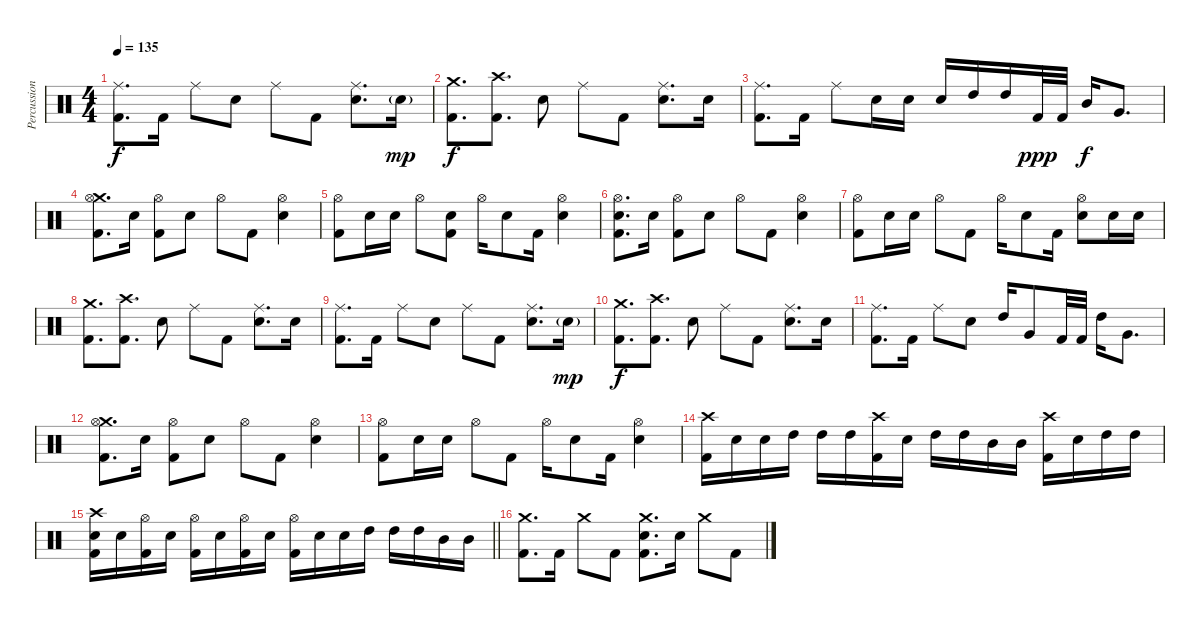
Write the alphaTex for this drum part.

\track ("Percussions" "Percussion") {instrument percussion}
\staff {score}
\articulation defaults
\ts (4 4)
\tempo 135
\clef neutral
\ks c
("Ride (middle)" "Kick (hit) 2").8{d dy f} "Kick (hit) 2".16 "Ride (middle)".8 "Electric Snare (hit)".8 "Ride (middle)".8 "Kick (hit) 2".8 ("Ride (middle)" "Electric Snare (hit)").8{d} "Electric Snare (hit)"{g}.16{dy mp} |
("Crash medium (hit)" "Kick (hit) 2").8{d dy f} ("Crash high (hit)" "Kick (hit) 2").8{d} "Electric Snare (hit)".8 "Ride (middle)".8 "Kick (hit) 2".8 ("Ride (middle)" "Electric Snare (hit)").8{d} "Electric Snare (hit)".16 |
("Ride (middle)" "Kick (hit) 2").8{d} "Kick (hit) 2".16 "Ride (middle)".8 "Electric Snare (hit)".16 "Electric Snare (hit)".16 "Electric Snare (hit)".16 "High Tom (hit)".16 "High Tom (hit)".16 "Kick (hit) 2".32{dy ppp} "Kick (hit) 2".32 "Mid Tom (hit)".16{dy f} "Very Low Tom (hit)".8{d} |
("Crash medium (hit)" "Hi-Hat (open)" "Kick (hit) 2").8{d} "Electric Snare (hit)".16 ("Hi-Hat (open)" "Kick (hit) 2").8 "Electric Snare (hit)".8 "Hi-Hat (open)".8 "Kick (hit) 2".8 ("Hi-Hat (open)" "Electric Snare (hit)").4 |
("Hi-Hat (open)" "Kick (hit) 2").8 "Electric Snare (hit)".16 "Electric Snare (hit)".16 "Hi-Hat (open)".8 ("Electric Snare (hit)" "Kick (hit) 2").8 "Hi-Hat (open)".16 "Electric Snare (hit)".8 "Kick (hit) 2".16 ("Hi-Hat (open)" "Electric Snare (hit)").4 |
("Hi-Hat (open)" "Electric Snare (hit)" "Kick (hit) 2").8{d} "Electric Snare (hit)".16 ("Hi-Hat (open)" "Kick (hit) 2").8 "Electric Snare (hit)".8 "Hi-Hat (open)".8 "Kick (hit) 2".8 ("Hi-Hat (open)" "Electric Snare (hit)").4 |
("Hi-Hat (open)" "Kick (hit) 2").8 "Electric Snare (hit)".16 "Electric Snare (hit)".16 "Hi-Hat (open)".8 "Kick (hit) 2".8 "Hi-Hat (open)".16 "Electric Snare (hit)".8 "Kick (hit) 2".16 ("Hi-Hat (open)" "Electric Snare (hit)").8 "Electric Snare (hit)".16 "Electric Snare (hit)".16 |
("Crash medium (hit)" "Kick (hit) 2").8{d} ("Crash high (hit)" "Kick (hit) 2").8{d} "Electric Snare (hit)".8 "Ride (middle)".8 "Kick (hit) 2".8 ("Ride (middle)" "Electric Snare (hit)").8{d} "Electric Snare (hit)".16 |
("Ride (middle)" "Kick (hit) 2").8{d} "Kick (hit) 2".16 "Ride (middle)".8 "Electric Snare (hit)".8 "Ride (middle)".8 "Kick (hit) 2".8 ("Ride (middle)" "Electric Snare (hit)").8{d} "Electric Snare (hit)"{g}.16{dy mp} |
("Crash medium (hit)" "Kick (hit) 2").8{d dy f} ("Crash high (hit)" "Kick (hit) 2").8{d} "Electric Snare (hit)".8 "Ride (middle)".8 "Kick (hit) 2".8 ("Ride (middle)" "Electric Snare (hit)").8{d} "Electric Snare (hit)".16 |
("Ride (middle)" "Kick (hit) 2").8{d} "Kick (hit) 2".16 "Ride (middle)".8 "Electric Snare (hit)".8 "High Tom (hit)".16 "Very Low Tom (hit)".8 "Kick (hit) 2".32 "Kick (hit) 2".32 "High Tom (hit)".16 "Very Low Tom (hit)".8{d} |
("Crash medium (hit)" "Hi-Hat (open)" "Kick (hit) 2").8{d} "Electric Snare (hit)".16 ("Hi-Hat (open)" "Kick (hit) 2").8 "Electric Snare (hit)".8 "Hi-Hat (open)".8 "Kick (hit) 2".8 ("Hi-Hat (open)" "Electric Snare (hit)").4 |
("Hi-Hat (open)" "Kick (hit) 2").8 "Electric Snare (hit)".16 "Electric Snare (hit)".16 "Hi-Hat (open)".8 "Kick (hit) 2".8 "Hi-Hat (open)".16 "Electric Snare (hit)".8 "Kick (hit) 2".16 ("Hi-Hat (open)" "Electric Snare (hit)").4 |
("Crash high (hit)" "Kick (hit) 2").16 "Electric Snare (hit)".16 "Electric Snare (hit)".16 "High Tom (hit)".16 "High Tom (hit)".16 "High Tom (hit)".16 ("Crash high (hit)" "Kick (hit) 2").16 "Electric Snare (hit)".16 "High Tom (hit)".16 "High Tom (hit)".16 "Mid Tom (hit)".16 "Mid Tom (hit)".16 ("Crash high (hit)" "Kick (hit) 2").16 "Electric Snare (hit)".16 "High Tom (hit)".16 "High Tom (hit)".16 |
\barLineRight lightlight
("Crash high (hit)" "Electric Snare (hit)" "Kick (hit) 2").16 "Electric Snare (hit)".16 ("Hi-Hat (open)" "Kick (hit) 2").16 "Electric Snare (hit)".16 ("Hi-Hat (open)" "Kick (hit) 2").16 "Electric Snare (hit)".16 ("Hi-Hat (open)" "Kick (hit) 2").16 "Electric Snare (hit)".16 ("Hi-Hat (open)" "Kick (hit) 2").16 "Electric Snare (hit)".16 "Electric Snare (hit)".16 "High Tom (hit)".16 "High Tom (hit)".16 "High Tom (hit)".16 "Mid Tom (hit)".16 "Mid Tom (hit)".16 |
("Crash medium (hit)" "Kick (hit) 2").8{d} "Kick (hit) 2".16 "Crash medium (hit)".8 "Kick (hit) 2".8 ("Crash medium (hit)" "Electric Snare (hit)" "Kick (hit) 2").8{d} "Electric Snare (hit)".16 "Crash medium (hit)".8 "Kick (hit) 2".8
